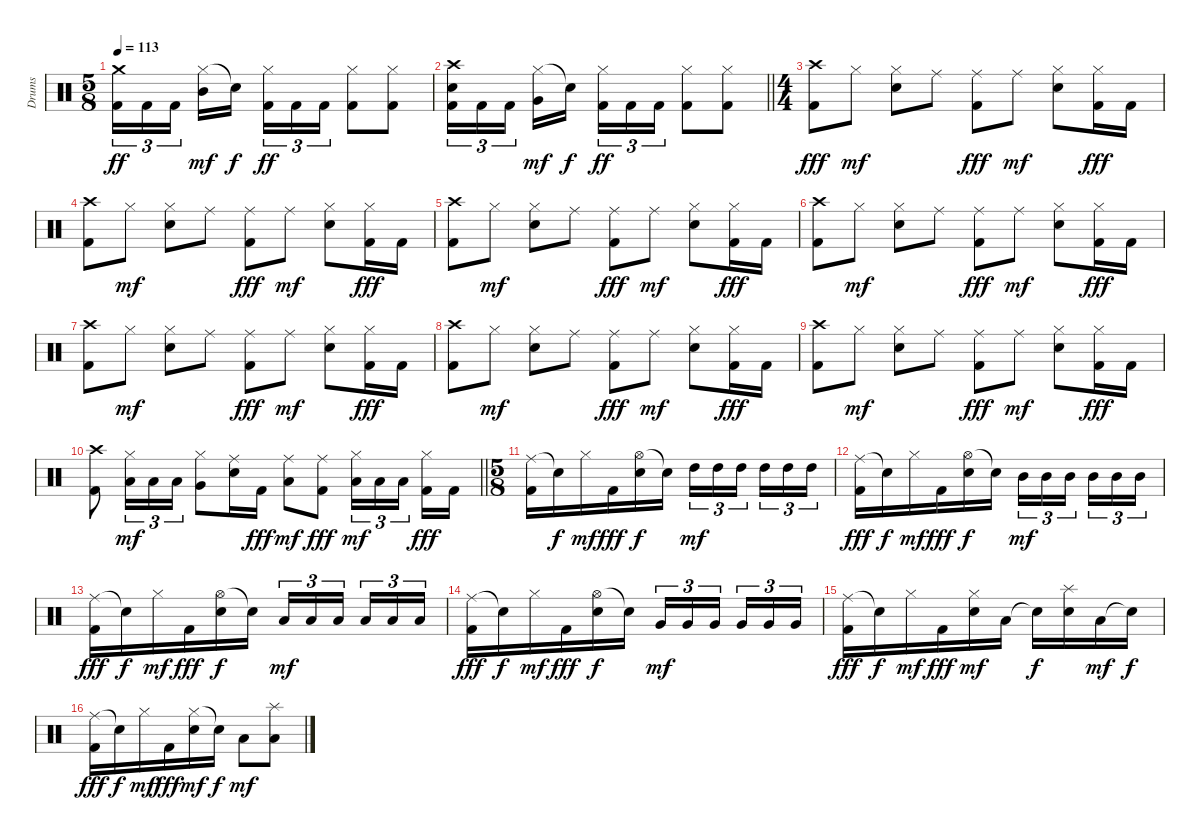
\track ("Drums" "Drums") {instrument percussion}
\staff {score}
\articulation defaults
\ts (5 8)
\tempo 113
\clef neutral
\ks c
("Crash medium (hit)" "Kick (hit) 2").16{tu (3 2) dy ff} "Kick (hit) 2".16{tu (3 2)} "Kick (hit) 2".16{tu (3 2)} ("Hi-Hat (closed)" "Mid Tom (hit)").16{dy mf} "Snare (hit)"{t}.16{dy f} ("Hi-Hat (closed)" "Kick (hit) 2").16{tu (3 2) dy ff} "Kick (hit) 2".16{tu (3 2)} "Kick (hit) 2".16{tu (3 2)} ("Hi-Hat (closed)" "Kick (hit) 2").8 ("Hi-Hat (closed)" "Kick (hit) 2").8 |
\barLineRight lightlight
("Crash high (hit)" "Snare (hit) 2" "Kick (hit) 2").16{tu (3 2)} "Kick (hit) 2".16{tu (3 2)} "Kick (hit) 2".16{tu (3 2)} ("Hi-Hat (closed)" "Very Low Tom (hit)").16{dy mf} "Snare (hit)"{t}.16{dy f} ("Hi-Hat (closed)" "Kick (hit) 2").16{tu (3 2) dy ff} "Kick (hit) 2".16{tu (3 2)} "Kick (hit) 2".16{tu (3 2)} ("Hi-Hat (closed)" "Kick (hit) 2").8 ("Hi-Hat (closed)" "Kick (hit) 2").8 |
\ts (4 4)
\section ("" "")
("Crash high (hit)" "Kick (hit) 2").8{dy fff} "Hi-Hat (closed)".8{dy mf} ("Hi-Hat (closed)" "Snare (hit) 2").8 "Ride (middle)".8 ("Ride (middle)" "Kick (hit) 2").8{dy fff} "Ride (middle)".8{dy mf} ("Hi-Hat (closed)" "Snare (hit) 2").8 ("Hi-Hat (closed)" "Kick (hit) 2").16{dy fff} "Kick (hit) 2".16 |
("Crash high (hit)" "Kick (hit) 2").8 "Hi-Hat (closed)".8{dy mf} ("Hi-Hat (closed)" "Snare (hit) 2").8 "Ride (middle)".8 ("Ride (middle)" "Kick (hit) 2").8{dy fff} "Ride (middle)".8{dy mf} ("Hi-Hat (closed)" "Snare (hit) 2").8 ("Hi-Hat (closed)" "Kick (hit) 2").16{dy fff} "Kick (hit) 2".16 |
("Crash high (hit)" "Kick (hit) 2").8 "Hi-Hat (closed)".8{dy mf} ("Hi-Hat (closed)" "Snare (hit) 2").8 "Ride (middle)".8 ("Ride (middle)" "Kick (hit) 2").8{dy fff} "Ride (middle)".8{dy mf} ("Hi-Hat (closed)" "Snare (hit) 2").8 ("Hi-Hat (closed)" "Kick (hit) 2").16{dy fff} "Kick (hit) 2".16 |
("Crash high (hit)" "Kick (hit) 2").8 "Hi-Hat (closed)".8{dy mf} ("Hi-Hat (closed)" "Snare (hit) 2").8 "Ride (middle)".8 ("Ride (middle)" "Kick (hit) 2").8{dy fff} "Ride (middle)".8{dy mf} ("Hi-Hat (closed)" "Snare (hit) 2").8 ("Hi-Hat (closed)" "Kick (hit) 2").16{dy fff} "Kick (hit) 2".16 |
("Crash high (hit)" "Kick (hit) 2").8 "Hi-Hat (closed)".8{dy mf} ("Hi-Hat (closed)" "Snare (hit) 2").8 "Ride (middle)".8 ("Ride (middle)" "Kick (hit) 2").8{dy fff} "Ride (middle)".8{dy mf} ("Hi-Hat (closed)" "Snare (hit) 2").8 ("Hi-Hat (closed)" "Kick (hit) 2").16{dy fff} "Kick (hit) 2".16 |
("Crash high (hit)" "Kick (hit) 2").8 "Hi-Hat (closed)".8{dy mf} ("Hi-Hat (closed)" "Snare (hit) 2").8 "Ride (middle)".8 ("Ride (middle)" "Kick (hit) 2").8{dy fff} "Ride (middle)".8{dy mf} ("Hi-Hat (closed)" "Snare (hit) 2").8 ("Hi-Hat (closed)" "Kick (hit) 2").16{dy fff} "Kick (hit) 2".16 |
("Crash high (hit)" "Kick (hit) 2").8 "Hi-Hat (closed)".8{dy mf} ("Hi-Hat (closed)" "Snare (hit) 2").8 "Ride (middle)".8 ("Ride (middle)" "Kick (hit) 2").8{dy fff} "Ride (middle)".8{dy mf} ("Hi-Hat (closed)" "Snare (hit) 2").8 ("Hi-Hat (closed)" "Kick (hit) 2").16{dy fff} "Kick (hit) 2".16 |
\barLineRight lightlight
("Crash high (hit)" "Kick (hit) 2").8 ("Hi-Hat (closed)" "Low Tom (hit)").16{tu (3 2) dy mf} "Low Tom (hit)".16{tu (3 2)} "Low Tom (hit)".16{tu (3 2)} ("Hi-Hat (closed)" "Very Low Tom (hit)").8 ("Ride (middle)" "Snare (hit) 2").16 "Kick (hit) 2".16{dy fff} ("Ride (middle)" "Low Tom (hit)").8{dy mf} ("Ride (middle)" "Kick (hit) 2").8{dy fff} ("Hi-Hat (closed)" "Low Tom (hit)").16{tu (3 2) dy mf} "Low Tom (hit)".16{tu (3 2)} "Low Tom (hit)".16{tu (3 2) beam splitsecondary} ("Hi-Hat (closed)" "Kick (hit) 2").16{dy fff} "Kick (hit) 2".16 |
\ts (5 8)
\section ("" "")
("Ride (middle)" "Kick (hit) 2").16 "Snare (hit)"{t}.16{dy f} "Hi-Hat (closed)".16{dy mf} "Kick (hit) 2".16{dy fff} ("Hi-Hat (open)" "Snare (hit) 2").16{dy f} "Snare (hit)"{t}.16 "High Tom (hit)".16{tu (3 2) dy mf} "High Tom (hit)".16{tu (3 2)} "High Tom (hit)".16{tu (3 2)} "High Tom (hit)".16{tu (3 2)} "High Tom (hit)".16{tu (3 2)} "High Tom (hit)".16{tu (3 2)} |
("Ride (middle)" "Kick (hit) 2").16{dy fff} "Snare (hit)"{t}.16{dy f} "Hi-Hat (closed)".16{dy mf} "Kick (hit) 2".16{dy fff} ("Hi-Hat (open)" "Snare (hit) 2").16{dy f} "Snare (hit)"{t}.16 "Mid Tom (hit)".16{tu (3 2) dy mf} "Mid Tom (hit)".16{tu (3 2)} "Mid Tom (hit)".16{tu (3 2)} "Mid Tom (hit)".16{tu (3 2)} "Mid Tom (hit)".16{tu (3 2)} "Mid Tom (hit)".16{tu (3 2)} |
("Ride (middle)" "Kick (hit) 2").16{dy fff} "Snare (hit)"{t}.16{dy f} "Hi-Hat (closed)".16{dy mf} "Kick (hit) 2".16{dy fff} ("Hi-Hat (open)" "Snare (hit) 2").16{dy f} "Snare (hit)"{t}.16 "Low Tom (hit)".16{tu (3 2) dy mf} "Low Tom (hit)".16{tu (3 2)} "Low Tom (hit)".16{tu (3 2)} "Low Tom (hit)".16{tu (3 2)} "Low Tom (hit)".16{tu (3 2)} "Low Tom (hit)".16{tu (3 2)} |
("Ride (middle)" "Kick (hit) 2").16{dy fff} "Snare (hit)"{t}.16{dy f} "Hi-Hat (closed)".16{dy mf} "Kick (hit) 2".16{dy fff} ("Hi-Hat (open)" "Snare (hit) 2").16{dy f} "Snare (hit)"{t}.16 "Very Low Tom (hit)".16{tu (3 2) dy mf} "Very Low Tom (hit)".16{tu (3 2)} "Very Low Tom (hit)".16{tu (3 2)} "Very Low Tom (hit)".16{tu (3 2)} "Very Low Tom (hit)".16{tu (3 2)} "Very Low Tom (hit)".16{tu (3 2)} |
("Ride (middle)" "Kick (hit) 2").16{dy fff} "Snare (hit)"{t}.16{dy f} "Hi-Hat (closed)".16{dy mf} "Kick (hit) 2".16{dy fff} ("Hi-Hat (closed)" "Snare (hit) 2").16{dy mf} "Low Tom (hit)".16 "Snare (hit)"{t}.16{dy f} ("Splash (hit)" "Snare (hit) 2").16 "Low Tom (hit)".16{dy mf} "Snare (hit)"{t}.16{dy f} |
("Ride (middle)" "Kick (hit) 2").16{dy fff} "Snare (hit)"{t}.16{dy f} "Hi-Hat (closed)".16{dy mf} "Kick (hit) 2".16{dy fff} ("Hi-Hat (closed)" "Snare (hit) 2").16{dy mf} "Snare (hit)"{t}.16{dy f} "Low Tom (hit)".8{dy mf} ("Splash (hit)" "Low Tom (hit)").8
